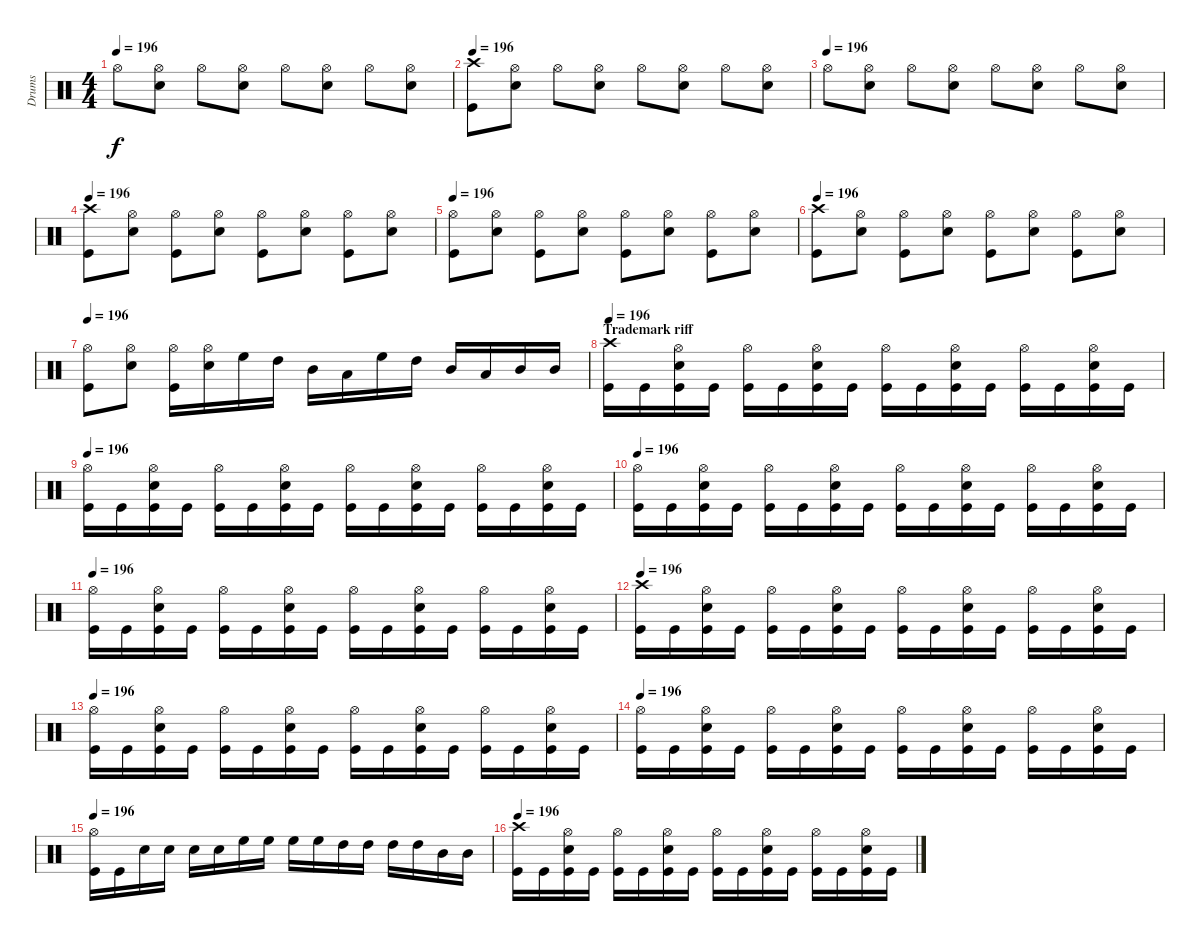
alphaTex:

\track ("Drums" "Drums") {instrument percussion}
\staff {score}
\articulation defaults
\ts (4 4)
\tempo 196
\clef neutral
\ks c "Hi-Hat (open)".8{dy f}
("Hi-Hat (open)" "Electric Snare (hit)").8 "Hi-Hat (open)".8 ("Hi-Hat (open)" "Electric Snare (hit)").8 "Hi-Hat (open)".8 ("Hi-Hat (open)" "Electric Snare (hit)").8 "Hi-Hat (open)".8 ("Hi-Hat (open)" "Electric Snare (hit)").8 |
\tempo 196
("Crash high (hit)" "Kick (hit)").8 ("Hi-Hat (open)" "Electric Snare (hit)").8 "Hi-Hat (open)".8 ("Hi-Hat (open)" "Electric Snare (hit)").8 "Hi-Hat (open)".8 ("Hi-Hat (open)" "Electric Snare (hit)").8 "Hi-Hat (open)".8 ("Hi-Hat (open)" "Electric Snare (hit)").8 |
\tempo (196)
"Hi-Hat (open)".8 ("Hi-Hat (open)" "Electric Snare (hit)").8 "Hi-Hat (open)".8 ("Hi-Hat (open)" "Electric Snare (hit)").8 "Hi-Hat (open)".8 ("Hi-Hat (open)" "Electric Snare (hit)").8 "Hi-Hat (open)".8 ("Hi-Hat (open)" "Electric Snare (hit)").8 |
\tempo 196
("Crash high (hit)" "Kick (hit)").8 ("Hi-Hat (open)" "Electric Snare (hit)").8 ("Hi-Hat (open)" "Kick (hit)").8 ("Hi-Hat (open)" "Electric Snare (hit)").8 ("Hi-Hat (open)" "Kick (hit)").8 ("Hi-Hat (open)" "Electric Snare (hit)").8 ("Hi-Hat (open)" "Kick (hit)").8 ("Hi-Hat (open)" "Electric Snare (hit)").8 |
\tempo 196
("Hi-Hat (open)" "Kick (hit)").8 ("Hi-Hat (open)" "Electric Snare (hit)").8 ("Hi-Hat (open)" "Kick (hit)").8 ("Hi-Hat (open)" "Electric Snare (hit)").8 ("Hi-Hat (open)" "Kick (hit)").8 ("Hi-Hat (open)" "Electric Snare (hit)").8 ("Hi-Hat (open)" "Kick (hit)").8 ("Hi-Hat (open)" "Electric Snare (hit)").8 |
\tempo 196
("Crash high (hit)" "Kick (hit)").8 ("Hi-Hat (open)" "Electric Snare (hit)").8 ("Hi-Hat (open)" "Kick (hit)").8 ("Hi-Hat (open)" "Electric Snare (hit)").8 ("Hi-Hat (open)" "Kick (hit)").8 ("Hi-Hat (open)" "Electric Snare (hit)").8 ("Hi-Hat (open)" "Kick (hit)").8 ("Hi-Hat (open)" "Electric Snare (hit)").8 |
\tempo 196
("Hi-Hat (open)" "Kick (hit)").8 ("Hi-Hat (open)" "Electric Snare (hit)").8 ("Hi-Hat (open)" "Kick (hit)").16 ("Hi-Hat (open)" "Electric Snare (hit)").16 "High Floor Tom (hit)".16 "High Tom (hit)".16 "Mid Tom (hit)".16 "Low Tom (hit)".16 "High Floor Tom (hit)".16 "High Tom (hit)".16 "Mid Tom (hit)".16 "Low Tom (hit)".16 "Mid Tom (hit)".16 "Mid Tom (hit)".16 |
\section ("" "Trademark riff")
\tempo 196
("Crash high (hit)" "Kick (hit)").16 "Kick (hit)".16 ("Hi-Hat (open)" "Electric Snare (hit)" "Kick (hit)").16 "Kick (hit)".16 ("Hi-Hat (open)" "Kick (hit)").16 "Kick (hit)".16 ("Hi-Hat (open)" "Electric Snare (hit)" "Kick (hit)").16 "Kick (hit)".16 ("Hi-Hat (open)" "Kick (hit)").16 "Kick (hit)".16 ("Hi-Hat (open)" "Electric Snare (hit)" "Kick (hit)").16 "Kick (hit)".16 ("Hi-Hat (open)" "Kick (hit)").16 "Kick (hit)".16 ("Hi-Hat (open)" "Electric Snare (hit)" "Kick (hit)").16 "Kick (hit)".16 |
\tempo 196
("Hi-Hat (open)" "Kick (hit)").16 "Kick (hit)".16 ("Hi-Hat (open)" "Electric Snare (hit)" "Kick (hit)").16 "Kick (hit)".16 ("Hi-Hat (open)" "Kick (hit)").16 "Kick (hit)".16 ("Hi-Hat (open)" "Electric Snare (hit)" "Kick (hit)").16 "Kick (hit)".16 ("Hi-Hat (open)" "Kick (hit)").16 "Kick (hit)".16 ("Hi-Hat (open)" "Electric Snare (hit)" "Kick (hit)").16 "Kick (hit)".16 ("Hi-Hat (open)" "Kick (hit)").16 "Kick (hit)".16 ("Hi-Hat (open)" "Electric Snare (hit)" "Kick (hit)").16 "Kick (hit)".16 |
\tempo 196
("Hi-Hat (open)" "Kick (hit)").16 "Kick (hit)".16 ("Hi-Hat (open)" "Electric Snare (hit)" "Kick (hit)").16 "Kick (hit)".16 ("Hi-Hat (open)" "Kick (hit)").16 "Kick (hit)".16 ("Hi-Hat (open)" "Electric Snare (hit)" "Kick (hit)").16 "Kick (hit)".16 ("Hi-Hat (open)" "Kick (hit)").16 "Kick (hit)".16 ("Hi-Hat (open)" "Electric Snare (hit)" "Kick (hit)").16 "Kick (hit)".16 ("Hi-Hat (open)" "Kick (hit)").16 "Kick (hit)".16 ("Hi-Hat (open)" "Electric Snare (hit)" "Kick (hit)").16 "Kick (hit)".16 |
\tempo 196
("Hi-Hat (open)" "Kick (hit)").16 "Kick (hit)".16 ("Hi-Hat (open)" "Electric Snare (hit)" "Kick (hit)").16 "Kick (hit)".16 ("Hi-Hat (open)" "Kick (hit)").16 "Kick (hit)".16 ("Hi-Hat (open)" "Electric Snare (hit)" "Kick (hit)").16 "Kick (hit)".16 ("Hi-Hat (open)" "Kick (hit)").16 "Kick (hit)".16 ("Hi-Hat (open)" "Electric Snare (hit)" "Kick (hit)").16 "Kick (hit)".16 ("Hi-Hat (open)" "Kick (hit)").16 "Kick (hit)".16 ("Hi-Hat (open)" "Electric Snare (hit)" "Kick (hit)").16 "Kick (hit)".16 |
\tempo 196
("Crash high (hit)" "Kick (hit)").16 "Kick (hit)".16 ("Hi-Hat (open)" "Electric Snare (hit)" "Kick (hit)").16 "Kick (hit)".16 ("Hi-Hat (open)" "Kick (hit)").16 "Kick (hit)".16 ("Hi-Hat (open)" "Electric Snare (hit)" "Kick (hit)").16 "Kick (hit)".16 ("Hi-Hat (open)" "Kick (hit)").16 "Kick (hit)".16 ("Hi-Hat (open)" "Electric Snare (hit)" "Kick (hit)").16 "Kick (hit)".16 ("Hi-Hat (open)" "Kick (hit)").16 "Kick (hit)".16 ("Hi-Hat (open)" "Electric Snare (hit)" "Kick (hit)").16 "Kick (hit)".16 |
\tempo 196
("Hi-Hat (open)" "Kick (hit)").16 "Kick (hit)".16 ("Hi-Hat (open)" "Electric Snare (hit)" "Kick (hit)").16 "Kick (hit)".16 ("Hi-Hat (open)" "Kick (hit)").16 "Kick (hit)".16 ("Hi-Hat (open)" "Electric Snare (hit)" "Kick (hit)").16 "Kick (hit)".16 ("Hi-Hat (open)" "Kick (hit)").16 "Kick (hit)".16 ("Hi-Hat (open)" "Electric Snare (hit)" "Kick (hit)").16 "Kick (hit)".16 ("Hi-Hat (open)" "Kick (hit)").16 "Kick (hit)".16 ("Hi-Hat (open)" "Electric Snare (hit)" "Kick (hit)").16 "Kick (hit)".16 |
\tempo 196
("Hi-Hat (open)" "Kick (hit)").16 "Kick (hit)".16 ("Hi-Hat (open)" "Electric Snare (hit)" "Kick (hit)").16 "Kick (hit)".16 ("Hi-Hat (open)" "Kick (hit)").16 "Kick (hit)".16 ("Hi-Hat (open)" "Electric Snare (hit)" "Kick (hit)").16 "Kick (hit)".16 ("Hi-Hat (open)" "Kick (hit)").16 "Kick (hit)".16 ("Hi-Hat (open)" "Electric Snare (hit)" "Kick (hit)").16 "Kick (hit)".16 ("Hi-Hat (open)" "Kick (hit)").16 "Kick (hit)".16 ("Hi-Hat (open)" "Electric Snare (hit)" "Kick (hit)").16 "Kick (hit)".16 |
\tempo 196
("Hi-Hat (open)" "Kick (hit)").16 "Kick (hit)".16 "Electric Snare (hit)".16 "Electric Snare (hit)".16 "Electric Snare (hit)".16 "Electric Snare (hit)".16 "High Floor Tom (hit)".16 "High Floor Tom (hit)".16 "High Floor Tom (hit)".16 "High Floor Tom (hit)".16 "High Tom (hit)".16 "High Tom (hit)".16 "High Tom (hit)".16 "High Tom (hit)".16 "Mid Tom (hit)".16 "Mid Tom (hit)".16 |
\tempo 196
("Crash high (hit)" "Kick (hit)").16 "Kick (hit)".16 ("Hi-Hat (open)" "Electric Snare (hit)" "Kick (hit)").16 "Kick (hit)".16 ("Hi-Hat (open)" "Kick (hit)").16 "Kick (hit)".16 ("Hi-Hat (open)" "Electric Snare (hit)" "Kick (hit)").16 "Kick (hit)".16 ("Hi-Hat (open)" "Kick (hit)").16 "Kick (hit)".16 ("Hi-Hat (open)" "Electric Snare (hit)" "Kick (hit)").16 "Kick (hit)".16 ("Hi-Hat (open)" "Kick (hit)").16 "Kick (hit)".16 ("Hi-Hat (open)" "Electric Snare (hit)" "Kick (hit)").16 "Kick (hit)".16
